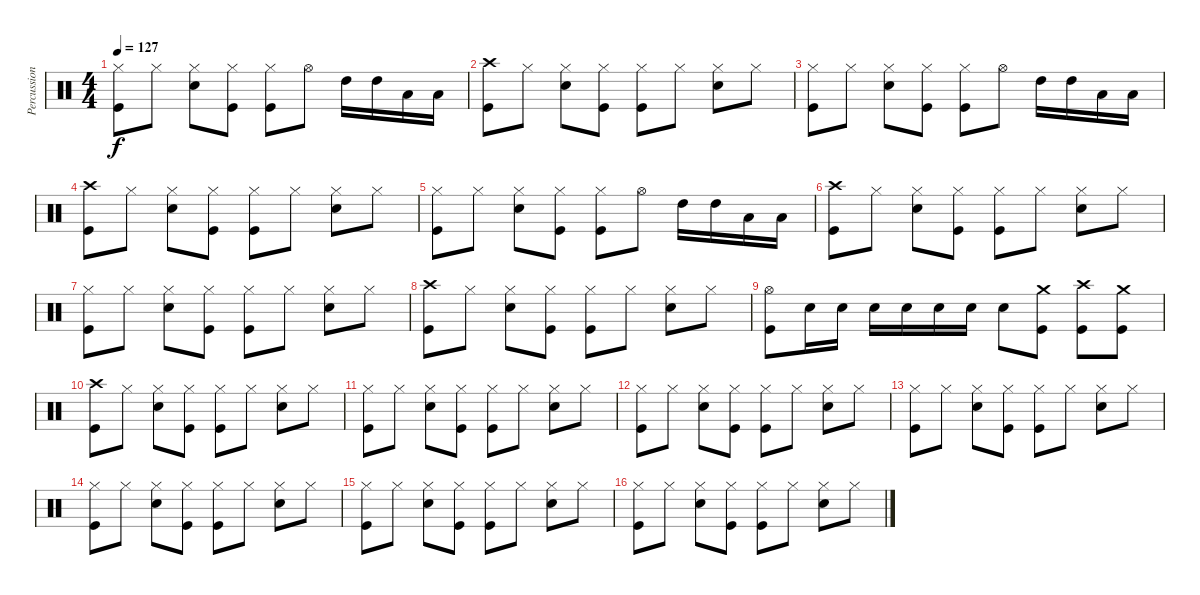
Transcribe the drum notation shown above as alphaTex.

\track ("Percussions" "Percussion") {instrument percussion}
\staff {score}
\articulation defaults
\ts (4 4)
\tempo 127
\clef neutral
\ks c
("Hi-Hat (closed)" "Kick (hit)").8{dy f} "Hi-Hat (closed)".8 ("Hi-Hat (closed)" "Snare (hit) 2").8 ("Hi-Hat (closed)" "Kick (hit)").8 ("Hi-Hat (closed)" "Kick (hit)").8 "Hi-Hat (open)".8 "High Tom (hit)".16 "High Tom (hit)".16 "Low Tom (hit)".16 "Low Tom (hit)".16 |
("Crash high (hit)" "Kick (hit)").8 "Hi-Hat (closed)".8 ("Hi-Hat (closed)" "Snare (hit) 2").8 ("Hi-Hat (closed)" "Kick (hit)").8 ("Hi-Hat (closed)" "Kick (hit)").8 "Hi-Hat (closed)".8 ("Hi-Hat (closed)" "Snare (hit) 2").8 "Hi-Hat (closed)".8 |
("Hi-Hat (closed)" "Kick (hit)").8 "Hi-Hat (closed)".8 ("Hi-Hat (closed)" "Snare (hit) 2").8 ("Hi-Hat (closed)" "Kick (hit)").8 ("Hi-Hat (closed)" "Kick (hit)").8 "Hi-Hat (open)".8 "High Tom (hit)".16 "High Tom (hit)".16 "Low Tom (hit)".16 "Low Tom (hit)".16 |
("Crash high (hit)" "Kick (hit)").8 "Hi-Hat (closed)".8 ("Hi-Hat (closed)" "Snare (hit) 2").8 ("Hi-Hat (closed)" "Kick (hit)").8 ("Hi-Hat (closed)" "Kick (hit)").8 "Hi-Hat (closed)".8 ("Hi-Hat (closed)" "Snare (hit) 2").8 "Hi-Hat (closed)".8 |
("Hi-Hat (closed)" "Kick (hit)").8 "Hi-Hat (closed)".8 ("Hi-Hat (closed)" "Snare (hit) 2").8 ("Hi-Hat (closed)" "Kick (hit)").8 ("Hi-Hat (closed)" "Kick (hit)").8 "Hi-Hat (open)".8 "High Tom (hit)".16 "High Tom (hit)".16 "Low Tom (hit)".16 "Low Tom (hit)".16 |
("Crash high (hit)" "Kick (hit)").8 "Hi-Hat (closed)".8 ("Hi-Hat (closed)" "Snare (hit) 2").8 ("Hi-Hat (closed)" "Kick (hit)").8 ("Hi-Hat (closed)" "Kick (hit)").8 "Hi-Hat (closed)".8 ("Hi-Hat (closed)" "Snare (hit) 2").8 "Hi-Hat (closed)".8 |
("Hi-Hat (closed)" "Kick (hit)").8 "Hi-Hat (closed)".8 ("Hi-Hat (closed)" "Snare (hit) 2").8 ("Hi-Hat (closed)" "Kick (hit)").8 ("Hi-Hat (closed)" "Kick (hit)").8 "Hi-Hat (closed)".8 ("Hi-Hat (closed)" "Snare (hit) 2").8 "Hi-Hat (closed)".8 |
("Crash high (hit)" "Kick (hit)").8 "Hi-Hat (closed)".8 ("Hi-Hat (closed)" "Snare (hit) 2").8 ("Hi-Hat (closed)" "Kick (hit)").8 ("Hi-Hat (closed)" "Kick (hit)").8 "Hi-Hat (closed)".8 ("Hi-Hat (closed)" "Snare (hit) 2").8 "Hi-Hat (closed)".8 |
("Hi-Hat (open)" "Kick (hit)").8 "Snare (hit) 2".16 "Snare (hit) 2".16 "Snare (hit) 2".16 "Snare (hit) 2".16 "Snare (hit) 2".16 "Snare (hit) 2".16 "Snare (hit) 2".8 ("Crash medium (hit)" "Kick (hit)").8 ("Crash high (hit)" "Kick (hit)").8 ("Crash medium (hit)" "Kick (hit)").8 |
("Crash high (hit)" "Kick (hit)").8 "Hi-Hat (closed)".8 ("Hi-Hat (closed)" "Snare (hit) 2").8 ("Hi-Hat (closed)" "Kick (hit)").8 ("Hi-Hat (closed)" "Kick (hit)").8 "Hi-Hat (closed)".8 ("Hi-Hat (closed)" "Snare (hit) 2").8 "Hi-Hat (closed)".8 |
("Hi-Hat (closed)" "Kick (hit)").8 "Hi-Hat (closed)".8 ("Hi-Hat (closed)" "Snare (hit) 2").8 ("Hi-Hat (closed)" "Kick (hit)").8 ("Hi-Hat (closed)" "Kick (hit)").8 "Hi-Hat (closed)".8 ("Hi-Hat (closed)" "Snare (hit) 2").8 "Hi-Hat (closed)".8 |
("Hi-Hat (closed)" "Kick (hit)").8 "Hi-Hat (closed)".8 ("Hi-Hat (closed)" "Snare (hit) 2").8 ("Hi-Hat (closed)" "Kick (hit)").8 ("Hi-Hat (closed)" "Kick (hit)").8 "Hi-Hat (closed)".8 ("Hi-Hat (closed)" "Snare (hit) 2").8 "Hi-Hat (closed)".8 |
("Hi-Hat (closed)" "Kick (hit)").8 "Hi-Hat (closed)".8 ("Hi-Hat (closed)" "Snare (hit) 2").8 ("Hi-Hat (closed)" "Kick (hit)").8 ("Hi-Hat (closed)" "Kick (hit)").8 "Hi-Hat (closed)".8 ("Hi-Hat (closed)" "Snare (hit) 2").8 "Hi-Hat (closed)".8 |
("Hi-Hat (closed)" "Kick (hit)").8 "Hi-Hat (closed)".8 ("Hi-Hat (closed)" "Snare (hit) 2").8 ("Hi-Hat (closed)" "Kick (hit)").8 ("Hi-Hat (closed)" "Kick (hit)").8 "Hi-Hat (closed)".8 ("Hi-Hat (closed)" "Snare (hit) 2").8 "Hi-Hat (closed)".8 |
("Hi-Hat (closed)" "Kick (hit)").8 "Hi-Hat (closed)".8 ("Hi-Hat (closed)" "Snare (hit) 2").8 ("Hi-Hat (closed)" "Kick (hit)").8 ("Hi-Hat (closed)" "Kick (hit)").8 "Hi-Hat (closed)".8 ("Hi-Hat (closed)" "Snare (hit) 2").8 "Hi-Hat (closed)".8 |
("Hi-Hat (closed)" "Kick (hit)").8 "Hi-Hat (closed)".8 ("Hi-Hat (closed)" "Snare (hit) 2").8 ("Hi-Hat (closed)" "Kick (hit)").8 ("Hi-Hat (closed)" "Kick (hit)").8 "Hi-Hat (closed)".8 ("Hi-Hat (closed)" "Snare (hit) 2").8 "Hi-Hat (closed)".8
